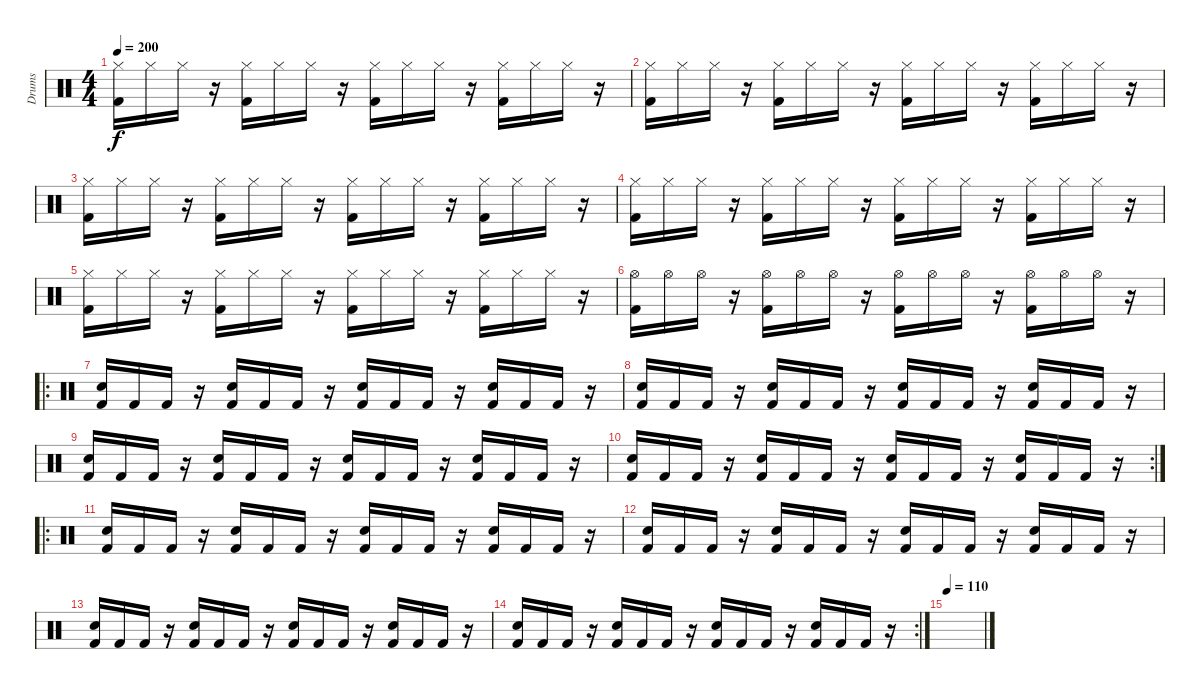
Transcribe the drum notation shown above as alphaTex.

\track ("Drums" "Drums") {instrument percussion}
\staff {score}
\articulation defaults
\ts (4 4)
\tempo 200
\clef neutral
\ks c
("Hi-Hat (closed)" "Kick (hit) 2").16{dy f} "Hi-Hat (closed)".16 "Hi-Hat (closed)".16 r.16 ("Hi-Hat (closed)" "Kick (hit) 2").16 "Hi-Hat (closed)".16 "Hi-Hat (closed)".16 r.16 ("Hi-Hat (closed)" "Kick (hit) 2").16 "Hi-Hat (closed)".16 "Hi-Hat (closed)".16 r.16 ("Hi-Hat (closed)" "Kick (hit) 2").16 "Hi-Hat (closed)".16 "Hi-Hat (closed)".16 r.16 |
("Hi-Hat (closed)" "Kick (hit) 2").16 "Hi-Hat (closed)".16 "Hi-Hat (closed)".16 r.16 ("Hi-Hat (closed)" "Kick (hit) 2").16 "Hi-Hat (closed)".16 "Hi-Hat (closed)".16 r.16 ("Hi-Hat (closed)" "Kick (hit) 2").16 "Hi-Hat (closed)".16 "Hi-Hat (closed)".16 r.16 ("Hi-Hat (closed)" "Kick (hit) 2").16 "Hi-Hat (closed)".16 "Hi-Hat (closed)".16 r.16 |
("Hi-Hat (closed)" "Kick (hit) 2").16 "Hi-Hat (closed)".16 "Hi-Hat (closed)".16 r.16 ("Hi-Hat (closed)" "Kick (hit) 2").16 "Hi-Hat (closed)".16 "Hi-Hat (closed)".16 r.16 ("Hi-Hat (closed)" "Kick (hit) 2").16 "Hi-Hat (closed)".16 "Hi-Hat (closed)".16 r.16 ("Hi-Hat (closed)" "Kick (hit) 2").16 "Hi-Hat (closed)".16 "Hi-Hat (closed)".16 r.16 |
("Hi-Hat (closed)" "Kick (hit) 2").16 "Hi-Hat (closed)".16 "Hi-Hat (closed)".16 r.16 ("Hi-Hat (closed)" "Kick (hit) 2").16 "Hi-Hat (closed)".16 "Hi-Hat (closed)".16 r.16 ("Hi-Hat (closed)" "Kick (hit) 2").16 "Hi-Hat (closed)".16 "Hi-Hat (closed)".16 r.16 ("Hi-Hat (closed)" "Kick (hit) 2").16 "Hi-Hat (closed)".16 "Hi-Hat (closed)".16 r.16 |
("Hi-Hat (closed)" "Kick (hit) 2").16 "Hi-Hat (closed)".16 "Hi-Hat (closed)".16 r.16 ("Hi-Hat (closed)" "Kick (hit) 2").16 "Hi-Hat (closed)".16 "Hi-Hat (closed)".16 r.16 ("Hi-Hat (closed)" "Kick (hit) 2").16 "Hi-Hat (closed)".16 "Hi-Hat (closed)".16 r.16 ("Hi-Hat (closed)" "Kick (hit) 2").16 "Hi-Hat (closed)".16 "Hi-Hat (closed)".16 r.16 |
("Hi-Hat (open)" "Kick (hit) 2").16 "Hi-Hat (open)".16 "Hi-Hat (open)".16 r.16 ("Hi-Hat (open)" "Kick (hit) 2").16 "Hi-Hat (open)".16 "Hi-Hat (open)".16 r.16 ("Hi-Hat (open)" "Kick (hit) 2").16 "Hi-Hat (open)".16 "Hi-Hat (open)".16 r.16 ("Hi-Hat (open)" "Kick (hit) 2").16 "Hi-Hat (open)".16 "Hi-Hat (open)".16 r.16 |
\ro
("Snare (hit) 2" "Kick (hit) 2").16 "Kick (hit) 2".16 "Kick (hit) 2".16 r.16 ("Snare (hit) 2" "Kick (hit) 2").16 "Kick (hit) 2".16 "Kick (hit) 2".16 r.16 ("Snare (hit) 2" "Kick (hit) 2").16 "Kick (hit) 2".16 "Kick (hit) 2".16 r.16 ("Snare (hit) 2" "Kick (hit) 2").16 "Kick (hit) 2".16 "Kick (hit) 2".16 r.16 |
("Snare (hit) 2" "Kick (hit) 2").16 "Kick (hit) 2".16 "Kick (hit) 2".16 r.16 ("Snare (hit) 2" "Kick (hit) 2").16 "Kick (hit) 2".16 "Kick (hit) 2".16 r.16 ("Snare (hit) 2" "Kick (hit) 2").16 "Kick (hit) 2".16 "Kick (hit) 2".16 r.16 ("Snare (hit) 2" "Kick (hit) 2").16 "Kick (hit) 2".16 "Kick (hit) 2".16 r.16 |
("Snare (hit) 2" "Kick (hit) 2").16 "Kick (hit) 2".16 "Kick (hit) 2".16 r.16 ("Snare (hit) 2" "Kick (hit) 2").16 "Kick (hit) 2".16 "Kick (hit) 2".16 r.16 ("Snare (hit) 2" "Kick (hit) 2").16 "Kick (hit) 2".16 "Kick (hit) 2".16 r.16 ("Snare (hit) 2" "Kick (hit) 2").16 "Kick (hit) 2".16 "Kick (hit) 2".16 r.16 |
\rc 2
("Snare (hit) 2" "Kick (hit) 2").16 "Kick (hit) 2".16 "Kick (hit) 2".16 r.16 ("Snare (hit) 2" "Kick (hit) 2").16 "Kick (hit) 2".16 "Kick (hit) 2".16 r.16 ("Snare (hit) 2" "Kick (hit) 2").16 "Kick (hit) 2".16 "Kick (hit) 2".16 r.16 ("Snare (hit) 2" "Kick (hit) 2").16 "Kick (hit) 2".16 "Kick (hit) 2".16 r.16 |
\ro
("Snare (hit) 2" "Kick (hit) 2").16 "Kick (hit) 2".16 "Kick (hit) 2".16 r.16 ("Snare (hit) 2" "Kick (hit) 2").16 "Kick (hit) 2".16 "Kick (hit) 2".16 r.16 ("Snare (hit) 2" "Kick (hit) 2").16 "Kick (hit) 2".16 "Kick (hit) 2".16 r.16 ("Snare (hit) 2" "Kick (hit) 2").16 "Kick (hit) 2".16 "Kick (hit) 2".16 r.16 |
("Snare (hit) 2" "Kick (hit) 2").16 "Kick (hit) 2".16 "Kick (hit) 2".16 r.16 ("Snare (hit) 2" "Kick (hit) 2").16 "Kick (hit) 2".16 "Kick (hit) 2".16 r.16 ("Snare (hit) 2" "Kick (hit) 2").16 "Kick (hit) 2".16 "Kick (hit) 2".16 r.16 ("Snare (hit) 2" "Kick (hit) 2").16 "Kick (hit) 2".16 "Kick (hit) 2".16 r.16 |
("Snare (hit) 2" "Kick (hit) 2").16 "Kick (hit) 2".16 "Kick (hit) 2".16 r.16 ("Snare (hit) 2" "Kick (hit) 2").16 "Kick (hit) 2".16 "Kick (hit) 2".16 r.16 ("Snare (hit) 2" "Kick (hit) 2").16 "Kick (hit) 2".16 "Kick (hit) 2".16 r.16 ("Snare (hit) 2" "Kick (hit) 2").16 "Kick (hit) 2".16 "Kick (hit) 2".16 r.16 |
\rc 2
("Snare (hit) 2" "Kick (hit) 2").16 "Kick (hit) 2".16 "Kick (hit) 2".16 r.16 ("Snare (hit) 2" "Kick (hit) 2").16 "Kick (hit) 2".16 "Kick (hit) 2".16 r.16 ("Snare (hit) 2" "Kick (hit) 2").16 "Kick (hit) 2".16 "Kick (hit) 2".16 r.16 ("Snare (hit) 2" "Kick (hit) 2").16 "Kick (hit) 2".16 "Kick (hit) 2".16 r.16 |
\tempo 110
